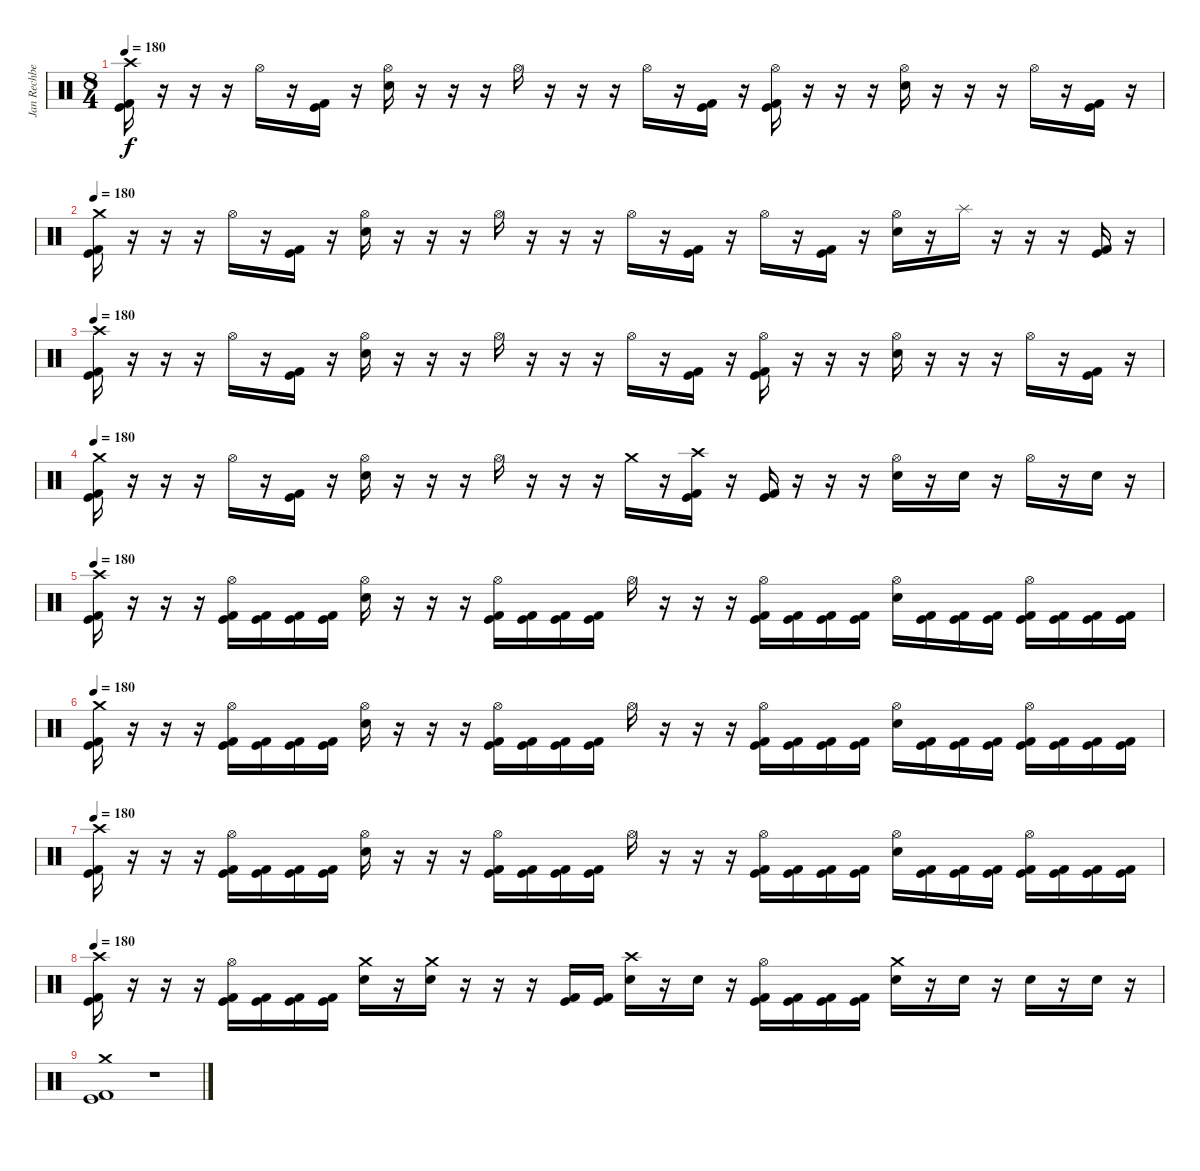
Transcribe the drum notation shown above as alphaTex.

\track ("Jan Rechberger" "Jan Rechbe") {instrument percussion}
\staff {score}
\articulation defaults
\ts (8 4)
\tempo 180
\clef neutral
\ks c
("Crash high (hit)" "Kick (hit) 2" "Kick (hit)").16{dy f} r.16 r.16 r.16 "Hi-Hat (open)".16 r.16 ("Kick (hit) 2" "Kick (hit)").16 r.16 ("Hi-Hat (open)" "Electric Snare (hit)").16 r.16 r.16 r.16 "Hi-Hat (open)".16 r.16 r.16 r.16 "Hi-Hat (open)".16 r.16 ("Kick (hit) 2" "Kick (hit)").16 r.16 ("Hi-Hat (open)" "Kick (hit) 2" "Kick (hit)").16 r.16 r.16 r.16 ("Hi-Hat (open)" "Electric Snare (hit)").16 r.16 r.16 r.16 "Hi-Hat (open)".16 r.16 ("Kick (hit) 2" "Kick (hit)").16 r.16 |
\tempo 180
("Crash medium (hit)" "Kick (hit) 2" "Kick (hit)").16 r.16 r.16 r.16 "Hi-Hat (open)".16 r.16 ("Kick (hit) 2" "Kick (hit)").16 r.16 ("Hi-Hat (open)" "Electric Snare (hit)").16 r.16 r.16 r.16 "Hi-Hat (open)".16 r.16 r.16 r.16 "Hi-Hat (open)".16 r.16 ("Kick (hit) 2" "Kick (hit)").16 r.16 "Hi-Hat (open)".16 r.16 ("Kick (hit) 2" "Kick (hit)").16 r.16 ("Hi-Hat (open)" "Electric Snare (hit)").16 r.16 "Splash (hit)".16 r.16 r.16 r.16 ("Kick (hit) 2" "Kick (hit)").16 r.16 |
\tempo 180
("Crash high (hit)" "Kick (hit) 2" "Kick (hit)").16 r.16 r.16 r.16 "Hi-Hat (open)".16 r.16 ("Kick (hit) 2" "Kick (hit)").16 r.16 ("Hi-Hat (open)" "Electric Snare (hit)").16 r.16 r.16 r.16 "Hi-Hat (open)".16 r.16 r.16 r.16 "Hi-Hat (open)".16 r.16 ("Kick (hit) 2" "Kick (hit)").16 r.16 ("Hi-Hat (open)" "Kick (hit) 2" "Kick (hit)").16 r.16 r.16 r.16 ("Hi-Hat (open)" "Electric Snare (hit)").16 r.16 r.16 r.16 "Hi-Hat (open)".16 r.16 ("Kick (hit) 2" "Kick (hit)").16 r.16 |
\tempo 180
("Crash medium (hit)" "Kick (hit) 2" "Kick (hit)").16 r.16 r.16 r.16 "Hi-Hat (open)".16 r.16 ("Kick (hit) 2" "Kick (hit)").16 r.16 ("Hi-Hat (open)" "Electric Snare (hit)").16 r.16 r.16 r.16 "Hi-Hat (open)".16 r.16 r.16 r.16 "Crash medium (hit)".16 r.16 ("Crash high (hit)" "Kick (hit) 2" "Kick (hit)").16 r.16 ("Kick (hit) 2" "Kick (hit)").16 r.16 r.16 r.16 ("Hi-Hat (open)" "Electric Snare (hit)").16 r.16 "Electric Snare (hit)".16 r.16 "Hi-Hat (open)".16 r.16 "Electric Snare (hit)".16 r.16 |
\tempo 180
("Crash high (hit)" "Kick (hit) 2" "Kick (hit)").16 r.16 r.16 r.16 ("Hi-Hat (open)" "Kick (hit) 2" "Kick (hit)").16 ("Kick (hit) 2" "Kick (hit)").16 ("Kick (hit) 2" "Kick (hit)").16 ("Kick (hit) 2" "Kick (hit)").16 ("Hi-Hat (open)" "Electric Snare (hit)").16 r.16 r.16 r.16 ("Hi-Hat (open)" "Kick (hit) 2" "Kick (hit)").16 ("Kick (hit) 2" "Kick (hit)").16 ("Kick (hit) 2" "Kick (hit)").16 ("Kick (hit) 2" "Kick (hit)").16 "Hi-Hat (open)".16 r.16 r.16 r.16 ("Hi-Hat (open)" "Kick (hit) 2" "Kick (hit)").16 ("Kick (hit) 2" "Kick (hit)").16 ("Kick (hit) 2" "Kick (hit)").16 ("Kick (hit) 2" "Kick (hit)").16 ("Hi-Hat (open)" "Electric Snare (hit)").16 ("Kick (hit) 2" "Kick (hit)").16 ("Kick (hit) 2" "Kick (hit)").16 ("Kick (hit) 2" "Kick (hit)").16 ("Hi-Hat (open)" "Kick (hit) 2" "Kick (hit)").16 ("Kick (hit) 2" "Kick (hit)").16 ("Kick (hit) 2" "Kick (hit)").16 ("Kick (hit) 2" "Kick (hit)").16 |
\tempo 180
("Crash medium (hit)" "Kick (hit) 2" "Kick (hit)").16 r.16 r.16 r.16 ("Hi-Hat (open)" "Kick (hit) 2" "Kick (hit)").16 ("Kick (hit) 2" "Kick (hit)").16 ("Kick (hit) 2" "Kick (hit)").16 ("Kick (hit) 2" "Kick (hit)").16 ("Hi-Hat (open)" "Electric Snare (hit)").16 r.16 r.16 r.16 ("Hi-Hat (open)" "Kick (hit) 2" "Kick (hit)").16 ("Kick (hit) 2" "Kick (hit)").16 ("Kick (hit) 2" "Kick (hit)").16 ("Kick (hit) 2" "Kick (hit)").16 "Hi-Hat (open)".16 r.16 r.16 r.16 ("Hi-Hat (open)" "Kick (hit) 2" "Kick (hit)").16 ("Kick (hit) 2" "Kick (hit)").16 ("Kick (hit) 2" "Kick (hit)").16 ("Kick (hit) 2" "Kick (hit)").16 ("Hi-Hat (open)" "Electric Snare (hit)").16 ("Kick (hit) 2" "Kick (hit)").16 ("Kick (hit) 2" "Kick (hit)").16 ("Kick (hit) 2" "Kick (hit)").16 ("Hi-Hat (open)" "Kick (hit) 2" "Kick (hit)").16 ("Kick (hit) 2" "Kick (hit)").16 ("Kick (hit) 2" "Kick (hit)").16 ("Kick (hit) 2" "Kick (hit)").16 |
\tempo 180
("Crash high (hit)" "Kick (hit) 2" "Kick (hit)").16 r.16 r.16 r.16 ("Hi-Hat (open)" "Kick (hit) 2" "Kick (hit)").16 ("Kick (hit) 2" "Kick (hit)").16 ("Kick (hit) 2" "Kick (hit)").16 ("Kick (hit) 2" "Kick (hit)").16 ("Hi-Hat (open)" "Electric Snare (hit)").16 r.16 r.16 r.16 ("Hi-Hat (open)" "Kick (hit) 2" "Kick (hit)").16 ("Kick (hit) 2" "Kick (hit)").16 ("Kick (hit) 2" "Kick (hit)").16 ("Kick (hit) 2" "Kick (hit)").16 "Hi-Hat (open)".16 r.16 r.16 r.16 ("Hi-Hat (open)" "Kick (hit) 2" "Kick (hit)").16 ("Kick (hit) 2" "Kick (hit)").16 ("Kick (hit) 2" "Kick (hit)").16 ("Kick (hit) 2" "Kick (hit)").16 ("Hi-Hat (open)" "Electric Snare (hit)").16 ("Kick (hit) 2" "Kick (hit)").16 ("Kick (hit) 2" "Kick (hit)").16 ("Kick (hit) 2" "Kick (hit)").16 ("Hi-Hat (open)" "Kick (hit) 2" "Kick (hit)").16 ("Kick (hit) 2" "Kick (hit)").16 ("Kick (hit) 2" "Kick (hit)").16 ("Kick (hit) 2" "Kick (hit)").16 |
\tempo 180
("Crash high (hit)" "Kick (hit) 2" "Kick (hit)").16 r.16 r.16 r.16 ("Hi-Hat (open)" "Kick (hit) 2" "Kick (hit)").16 ("Kick (hit) 2" "Kick (hit)").16 ("Kick (hit) 2" "Kick (hit)").16 ("Kick (hit) 2" "Kick (hit)").16 ("Crash medium (hit)" "Electric Snare (hit)").16 r.16 ("Crash medium (hit)" "Electric Snare (hit)").16 r.16 r.16 r.16 ("Kick (hit) 2" "Kick (hit)").16 ("Kick (hit) 2" "Kick (hit)").16 ("Crash high (hit)" "Electric Snare (hit)").16 r.16 "Electric Snare (hit)".16 r.16 ("Hi-Hat (open)" "Kick (hit) 2" "Kick (hit)").16 ("Kick (hit) 2" "Kick (hit)").16 ("Kick (hit) 2" "Kick (hit)").16 ("Kick (hit) 2" "Kick (hit)").16 ("Crash medium (hit)" "Electric Snare (hit)").16 r.16 "Electric Snare (hit)".16 r.16 "Electric Snare (hit)".16 r.16 "Electric Snare (hit)".16 r.16 |
("Crash medium (hit)" "Kick (hit) 2" "Kick (hit)").1 r.1
